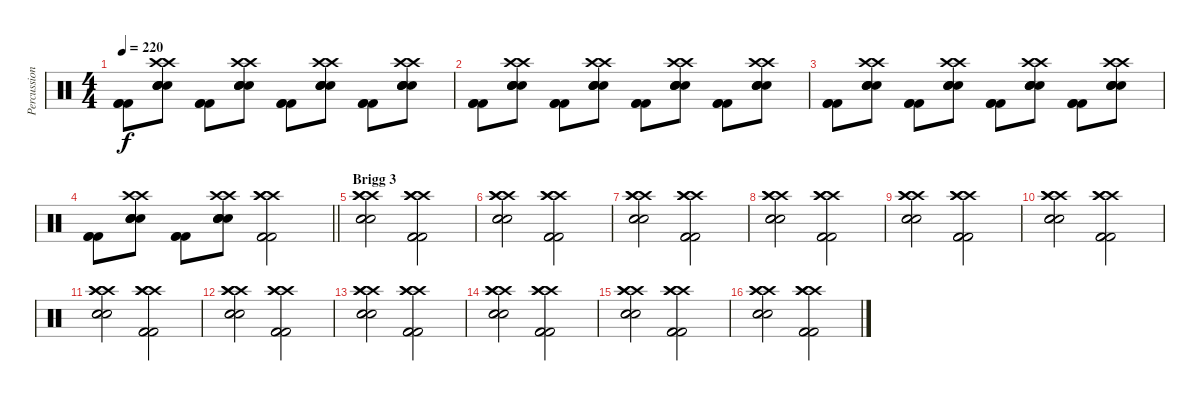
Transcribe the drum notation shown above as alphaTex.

\track ("Percussion" "Percussion") {instrument percussion}
\staff {score}
\articulation defaults
\ts (4 4)
\tempo 220
\clef neutral
\ks c
("Kick (hit) 2" "Kick (hit) 2" "Kick (hit) 2").8{dy f} ("Snare (hit) 2" "Crash high (hit)" "Crash high (hit)" "Snare (hit) 2" "Snare (hit) 2" "Snare (hit) 2").8 ("Kick (hit) 2" "Kick (hit) 2" "Kick (hit) 2").8 ("Snare (hit) 2" "Crash high (hit)" "Crash high (hit)" "Snare (hit) 2" "Snare (hit) 2" "Snare (hit) 2").8 ("Kick (hit) 2" "Kick (hit) 2" "Kick (hit) 2").8 ("Snare (hit) 2" "Crash high (hit)" "Crash high (hit)" "Snare (hit) 2" "Snare (hit) 2" "Snare (hit) 2").8 ("Kick (hit) 2" "Kick (hit) 2" "Kick (hit) 2").8 ("Snare (hit) 2" "Crash high (hit)" "Crash high (hit)" "Snare (hit) 2" "Snare (hit) 2" "Snare (hit) 2").8 |
("Kick (hit) 2" "Kick (hit) 2" "Kick (hit) 2").8 ("Snare (hit) 2" "Crash high (hit)" "Crash high (hit)" "Snare (hit) 2" "Snare (hit) 2" "Snare (hit) 2").8 ("Kick (hit) 2" "Kick (hit) 2" "Kick (hit) 2").8 ("Snare (hit) 2" "Crash high (hit)" "Crash high (hit)" "Snare (hit) 2" "Snare (hit) 2" "Snare (hit) 2").8 ("Kick (hit) 2" "Kick (hit) 2" "Kick (hit) 2").8 ("Snare (hit) 2" "Crash high (hit)" "Crash high (hit)" "Snare (hit) 2" "Snare (hit) 2" "Snare (hit) 2").8 ("Kick (hit) 2" "Kick (hit) 2" "Kick (hit) 2").8 ("Snare (hit) 2" "Crash high (hit)" "Crash high (hit)" "Snare (hit) 2" "Snare (hit) 2" "Snare (hit) 2").8 |
("Kick (hit) 2" "Kick (hit) 2" "Kick (hit) 2").8 ("Snare (hit) 2" "Crash high (hit)" "Crash high (hit)" "Snare (hit) 2" "Snare (hit) 2" "Snare (hit) 2").8 ("Kick (hit) 2" "Kick (hit) 2" "Kick (hit) 2").8 ("Snare (hit) 2" "Crash high (hit)" "Crash high (hit)" "Snare (hit) 2" "Snare (hit) 2" "Snare (hit) 2").8 ("Kick (hit) 2" "Kick (hit) 2" "Kick (hit) 2").8 ("Snare (hit) 2" "Crash high (hit)" "Crash high (hit)" "Snare (hit) 2" "Snare (hit) 2" "Snare (hit) 2").8 ("Kick (hit) 2" "Kick (hit) 2" "Kick (hit) 2").8 ("Snare (hit) 2" "Crash high (hit)" "Crash high (hit)" "Snare (hit) 2" "Snare (hit) 2" "Snare (hit) 2").8 |
\barLineRight lightlight
("Kick (hit) 2" "Kick (hit) 2" "Kick (hit) 2").8 ("Snare (hit) 2" "Crash high (hit)" "Crash high (hit)" "Snare (hit) 2" "Snare (hit) 2" "Snare (hit) 2").8 ("Kick (hit) 2" "Kick (hit) 2" "Kick (hit) 2").8 ("Snare (hit) 2" "Crash high (hit)" "Crash high (hit)" "Snare (hit) 2" "Snare (hit) 2" "Snare (hit) 2").8 ("Crash high (hit)" "Crash high (hit)" "Crash high (hit)" "Kick (hit) 2" "Kick (hit) 2" "Kick (hit) 2").2 |
\section ("" "Brigg 3")
("Crash high (hit)" "Crash high (hit)" "Crash high (hit)" "Snare (hit) 2" "Snare (hit) 2" "Snare (hit) 2").2 ("Crash high (hit)" "Crash high (hit)" "Crash high (hit)" "Kick (hit) 2" "Kick (hit) 2" "Kick (hit) 2").2 |
("Crash high (hit)" "Crash high (hit)" "Crash high (hit)" "Snare (hit) 2" "Snare (hit) 2" "Snare (hit) 2").2 ("Crash high (hit)" "Crash high (hit)" "Crash high (hit)" "Kick (hit) 2" "Kick (hit) 2" "Kick (hit) 2").2 |
("Crash high (hit)" "Crash high (hit)" "Crash high (hit)" "Snare (hit) 2" "Snare (hit) 2" "Snare (hit) 2").2 ("Crash high (hit)" "Crash high (hit)" "Crash high (hit)" "Kick (hit) 2" "Kick (hit) 2" "Kick (hit) 2").2 |
("Crash high (hit)" "Crash high (hit)" "Crash high (hit)" "Snare (hit) 2" "Snare (hit) 2" "Snare (hit) 2").2 ("Crash high (hit)" "Crash high (hit)" "Crash high (hit)" "Kick (hit) 2" "Kick (hit) 2" "Kick (hit) 2").2 |
("Crash high (hit)" "Crash high (hit)" "Crash high (hit)" "Snare (hit) 2" "Snare (hit) 2" "Snare (hit) 2").2 ("Crash high (hit)" "Crash high (hit)" "Crash high (hit)" "Kick (hit) 2" "Kick (hit) 2" "Kick (hit) 2").2 |
("Crash high (hit)" "Crash high (hit)" "Crash high (hit)" "Snare (hit) 2" "Snare (hit) 2" "Snare (hit) 2").2 ("Crash high (hit)" "Crash high (hit)" "Crash high (hit)" "Kick (hit) 2" "Kick (hit) 2" "Kick (hit) 2").2 |
("Crash high (hit)" "Crash high (hit)" "Crash high (hit)" "Snare (hit) 2" "Snare (hit) 2" "Snare (hit) 2").2 ("Crash high (hit)" "Crash high (hit)" "Crash high (hit)" "Kick (hit) 2" "Kick (hit) 2" "Kick (hit) 2").2 |
("Crash high (hit)" "Crash high (hit)" "Crash high (hit)" "Snare (hit) 2" "Snare (hit) 2" "Snare (hit) 2").2 ("Crash high (hit)" "Crash high (hit)" "Crash high (hit)" "Kick (hit) 2" "Kick (hit) 2" "Kick (hit) 2").2 |
("Crash high (hit)" "Crash high (hit)" "Crash high (hit)" "Snare (hit) 2" "Snare (hit) 2" "Snare (hit) 2").2 ("Crash high (hit)" "Crash high (hit)" "Crash high (hit)" "Kick (hit) 2" "Kick (hit) 2" "Kick (hit) 2").2 |
("Crash high (hit)" "Crash high (hit)" "Crash high (hit)" "Snare (hit) 2" "Snare (hit) 2" "Snare (hit) 2").2 ("Crash high (hit)" "Crash high (hit)" "Crash high (hit)" "Kick (hit) 2" "Kick (hit) 2" "Kick (hit) 2").2 |
("Crash high (hit)" "Crash high (hit)" "Crash high (hit)" "Snare (hit) 2" "Snare (hit) 2" "Snare (hit) 2").2 ("Crash high (hit)" "Crash high (hit)" "Crash high (hit)" "Kick (hit) 2" "Kick (hit) 2" "Kick (hit) 2").2 |
("Crash high (hit)" "Crash high (hit)" "Crash high (hit)" "Snare (hit) 2" "Snare (hit) 2" "Snare (hit) 2").2 ("Crash high (hit)" "Crash high (hit)" "Crash high (hit)" "Kick (hit) 2" "Kick (hit) 2" "Kick (hit) 2").2
